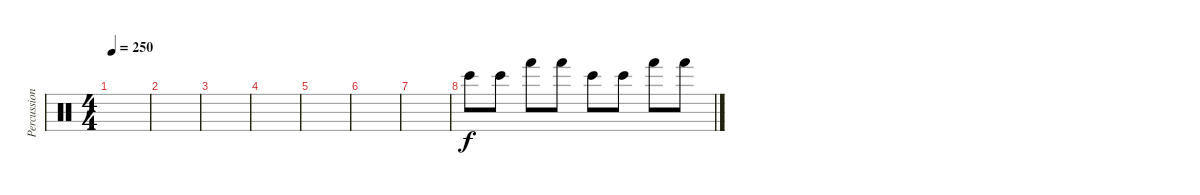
\track ("Percussion" "Percussion") {instrument percussion}
\staff {score}
\articulation defaults
\ts (4 4)
\tempo 250
\clef neutral
\ks c
|
|
|
|
|
|
|
"Bongo High (hit)".8 "Bongo High (hit)".8 "Hand (hit)".8 "Hand (hit)".8 "Bongo High (hit)".8 "Bongo High (hit)".8 "Hand (hit)".8 "Hand (hit)".8
